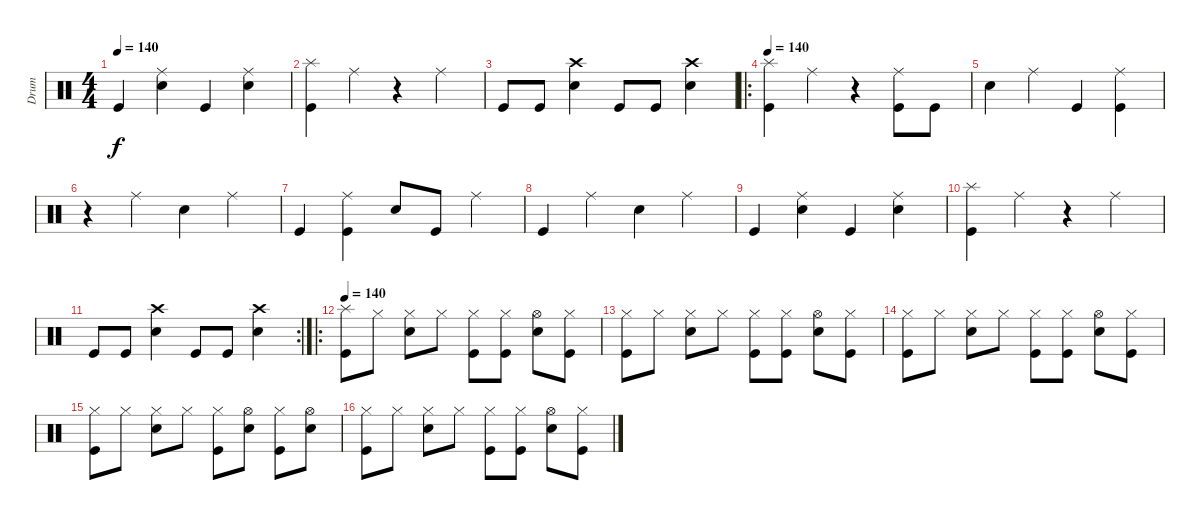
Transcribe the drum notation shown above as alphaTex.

\track ("Drum" "Drum") {instrument percussion}
\staff {score}
\articulation defaults
\ts (4 4)
\tempo 140
\clef neutral
\ks c "Kick (hit)".4{dy f}
("Electric Snare (hit)" "Ride (middle)").4 "Kick (hit)".4 ("Electric Snare (hit)" "Ride (middle)").4 |
("Kick (hit)" "Splash (hit)").4 "Ride (middle)".4 r.4 "Ride (middle)".4 |
"Kick (hit)".8 "Kick (hit)".8 ("Electric Snare (hit)" "Crash high (hit)").4 "Kick (hit)".8 "Kick (hit)".8 ("Electric Snare (hit)" "Crash high (hit)").4 |
\ro
\tempo 140
("Kick (hit)" "Splash (hit)").4 "Ride (middle)".4 r.4 ("Kick (hit)" "Ride (middle)").8 "Kick (hit)".8 |
"Electric Snare (hit)".4 "Ride (middle)".4 "Kick (hit)".4 ("Kick (hit)" "Ride (middle)").4 |
r.4 "Ride (middle)".4 "Electric Snare (hit)".4 "Ride (middle)".4 |
"Kick (hit)".4 ("Kick (hit)" "Ride (middle)").4 "Electric Snare (hit)".8 "Kick (hit)".8 "Ride (middle)".4 |
"Kick (hit)".4 "Ride (middle)".4 "Electric Snare (hit)".4 "Ride (middle)".4 |
"Kick (hit)".4 ("Electric Snare (hit)" "Ride (middle)").4 "Kick (hit)".4 ("Electric Snare (hit)" "Ride (middle)").4 |
("Kick (hit)" "Splash (hit)").4 "Ride (middle)".4 r.4 "Ride (middle)".4 |
\rc 2 "Kick (hit)".8 "Kick (hit)".8
("Electric Snare (hit)" "Crash high (hit)").4 "Kick (hit)".8 "Kick (hit)".8 ("Electric Snare (hit)" "Crash high (hit)").4 |
\ro
\tempo 140
("Kick (hit)" "Splash (hit)").8 "Hi-Hat (closed)".8 ("Electric Snare (hit)" "Hi-Hat (closed)").8 "Hi-Hat (closed)".8 ("Kick (hit)" "Hi-Hat (closed)").8 ("Kick (hit)" "Hi-Hat (closed)").8 ("Electric Snare (hit)" "Hi-Hat (open)").8 ("Kick (hit)" "Hi-Hat (closed)").8 |
("Kick (hit)" "Hi-Hat (closed)").8 "Hi-Hat (closed)".8 ("Electric Snare (hit)" "Hi-Hat (closed)").8 "Hi-Hat (closed)".8 ("Kick (hit)" "Hi-Hat (closed)").8 ("Kick (hit)" "Hi-Hat (closed)").8 ("Electric Snare (hit)" "Hi-Hat (open)").8 ("Kick (hit)" "Hi-Hat (closed)").8 |
("Kick (hit)" "Hi-Hat (closed)").8 "Hi-Hat (closed)".8 ("Electric Snare (hit)" "Hi-Hat (closed)").8 "Hi-Hat (closed)".8 ("Kick (hit)" "Hi-Hat (closed)").8 ("Kick (hit)" "Hi-Hat (closed)").8 ("Electric Snare (hit)" "Hi-Hat (open)").8 ("Kick (hit)" "Hi-Hat (closed)").8 |
("Kick (hit)" "Hi-Hat (closed)").8 "Hi-Hat (closed)".8 ("Electric Snare (hit)" "Hi-Hat (closed)").8 "Hi-Hat (closed)".8 ("Kick (hit)" "Hi-Hat (closed)").8 ("Electric Snare (hit)" "Hi-Hat (open)").8 ("Kick (hit)" "Hi-Hat (closed)").8 ("Electric Snare (hit)" "Hi-Hat (open)").8 |
("Kick (hit)" "Hi-Hat (closed)").8 "Hi-Hat (closed)".8 ("Electric Snare (hit)" "Hi-Hat (closed)").8 "Hi-Hat (closed)".8 ("Kick (hit)" "Hi-Hat (closed)").8 ("Kick (hit)" "Hi-Hat (closed)").8 ("Electric Snare (hit)" "Hi-Hat (open)").8 ("Kick (hit)" "Hi-Hat (closed)").8
